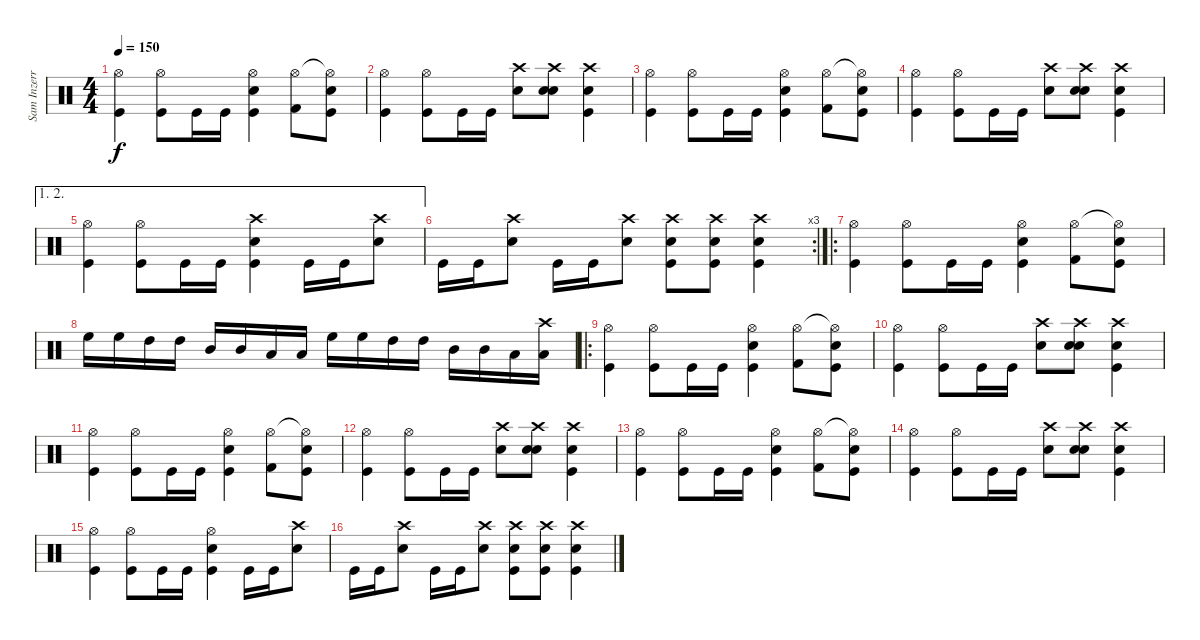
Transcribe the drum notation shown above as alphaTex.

\track ("Sam Inzerra(Percusión)" "Sam Inzerr") {instrument percussion}
\staff {score}
\articulation defaults
\ts (4 4)
\tempo 150
\clef neutral
\ks c
("Hi-Hat (open)" "Kick (hit)").4{dy f} ("Hi-Hat (open)" "Kick (hit)").8 "Kick (hit)".16 "Kick (hit)".16 ("Hi-Hat (open)" "Electric Snare (hit)" "Kick (hit)").4 ("Hi-Hat (open)" "Kick (hit) 2").8 ("Hi-Hat (open)"{t} "Electric Snare (hit)" "Kick (hit)").8 |
("Hi-Hat (open)" "Kick (hit)").4 ("Hi-Hat (open)" "Kick (hit)").8 "Kick (hit)".16 "Kick (hit)".16 ("Crash high (hit)" "Electric Snare (hit)").8 ("Crash high (hit)" "Electric Snare (hit)" "Electric Snare (hit)").8 ("Crash high (hit)" "Electric Snare (hit)" "Kick (hit)").4 |
("Hi-Hat (open)" "Kick (hit)").4 ("Hi-Hat (open)" "Kick (hit)").8 "Kick (hit)".16 "Kick (hit)".16 ("Hi-Hat (open)" "Electric Snare (hit)" "Kick (hit)").4 ("Hi-Hat (open)" "Kick (hit) 2").8 ("Hi-Hat (open)"{t} "Electric Snare (hit)" "Kick (hit)").8 |
("Hi-Hat (open)" "Kick (hit)").4 ("Hi-Hat (open)" "Kick (hit)").8 "Kick (hit)".16 "Kick (hit)".16 ("Crash high (hit)" "Electric Snare (hit)").8 ("Crash high (hit)" "Electric Snare (hit)" "Electric Snare (hit)").8 ("Crash high (hit)" "Electric Snare (hit)" "Kick (hit)").4 |
\ae (1 2)
("Hi-Hat (open)" "Kick (hit)").4 ("Hi-Hat (open)" "Kick (hit)").8 "Kick (hit)".16 "Kick (hit)".16 ("Crash high (hit)" "Electric Snare (hit)" "Kick (hit)").4 "Kick (hit)".16 "Kick (hit)".16 ("Crash high (hit)" "Electric Snare (hit)").8 |
\rc 3 "Kick (hit)".16 "Kick (hit)".16
("Crash high (hit)" "Electric Snare (hit)").8 "Kick (hit)".16 "Kick (hit)".16 ("Crash high (hit)" "Electric Snare (hit)").8 ("Crash high (hit)" "Electric Snare (hit)" "Kick (hit)").8 ("Crash high (hit)" "Electric Snare (hit)" "Kick (hit)").8 ("Crash high (hit)" "Electric Snare (hit)" "Kick (hit)").4 |
\ro
("Hi-Hat (open)" "Kick (hit)").4 ("Hi-Hat (open)" "Kick (hit)").8 "Kick (hit)".16 "Kick (hit)".16 ("Hi-Hat (open)" "Electric Snare (hit)" "Kick (hit)").4 ("Hi-Hat (open)" "Kick (hit) 2").8 ("Hi-Hat (open)"{t} "Electric Snare (hit)" "Kick (hit)").8 |
"High Floor Tom (hit)".16 "High Floor Tom (hit)".16 "High Tom (hit)".16 "High Tom (hit)".16 "Mid Tom (hit)".16 "Mid Tom (hit)".16 "Low Tom (hit)".16 "Low Tom (hit)".16 "High Floor Tom (hit)".16 "High Floor Tom (hit)".16 "High Tom (hit)".16 "High Tom (hit)".16 "Mid Tom (hit)".16 "Mid Tom (hit)".16 "Low Tom (hit)".16 ("Crash high (hit)" "Low Tom (hit)").16 |
\ro
("Hi-Hat (open)" "Kick (hit)").4 ("Hi-Hat (open)" "Kick (hit)").8 "Kick (hit)".16 "Kick (hit)".16 ("Hi-Hat (open)" "Electric Snare (hit)" "Kick (hit)").4 ("Hi-Hat (open)" "Kick (hit) 2").8 ("Hi-Hat (open)"{t} "Electric Snare (hit)" "Kick (hit)").8 |
("Hi-Hat (open)" "Kick (hit)").4 ("Hi-Hat (open)" "Kick (hit)").8 "Kick (hit)".16 "Kick (hit)".16 ("Crash high (hit)" "Electric Snare (hit)").8 ("Crash high (hit)" "Electric Snare (hit)" "Electric Snare (hit)").8 ("Crash high (hit)" "Electric Snare (hit)" "Kick (hit)").4 |
("Hi-Hat (open)" "Kick (hit)").4 ("Hi-Hat (open)" "Kick (hit)").8 "Kick (hit)".16 "Kick (hit)".16 ("Hi-Hat (open)" "Electric Snare (hit)" "Kick (hit)").4 ("Hi-Hat (open)" "Kick (hit) 2").8 ("Hi-Hat (open)"{t} "Electric Snare (hit)" "Kick (hit)").8 |
("Hi-Hat (open)" "Kick (hit)").4 ("Hi-Hat (open)" "Kick (hit)").8 "Kick (hit)".16 "Kick (hit)".16 ("Crash high (hit)" "Electric Snare (hit)").8 ("Crash high (hit)" "Electric Snare (hit)" "Electric Snare (hit)").8 ("Crash high (hit)" "Electric Snare (hit)" "Kick (hit)").4 |
("Hi-Hat (open)" "Kick (hit)").4 ("Hi-Hat (open)" "Kick (hit)").8 "Kick (hit)".16 "Kick (hit)".16 ("Hi-Hat (open)" "Electric Snare (hit)" "Kick (hit)").4 ("Hi-Hat (open)" "Kick (hit) 2").8 ("Hi-Hat (open)"{t} "Electric Snare (hit)" "Kick (hit)").8 |
("Hi-Hat (open)" "Kick (hit)").4 ("Hi-Hat (open)" "Kick (hit)").8 "Kick (hit)".16 "Kick (hit)".16 ("Crash high (hit)" "Electric Snare (hit)").8 ("Crash high (hit)" "Electric Snare (hit)" "Electric Snare (hit)").8 ("Crash high (hit)" "Electric Snare (hit)" "Kick (hit)").4 |
("Hi-Hat (open)" "Kick (hit)").4 ("Hi-Hat (open)" "Kick (hit)").8 "Kick (hit)".16 "Kick (hit)".16 ("Hi-Hat (open)" "Electric Snare (hit)" "Kick (hit)").4 "Kick (hit)".16 "Kick (hit)".16 ("Crash high (hit)" "Electric Snare (hit)").8 |
"Kick (hit)".16 "Kick (hit)".16 ("Crash high (hit)" "Electric Snare (hit)").8 "Kick (hit)".16 "Kick (hit)".16 ("Crash high (hit)" "Electric Snare (hit)").8 ("Crash high (hit)" "Electric Snare (hit)" "Kick (hit)").8 ("Crash high (hit)" "Electric Snare (hit)" "Kick (hit)").8 ("Crash high (hit)" "Electric Snare (hit)" "Kick (hit)").4
